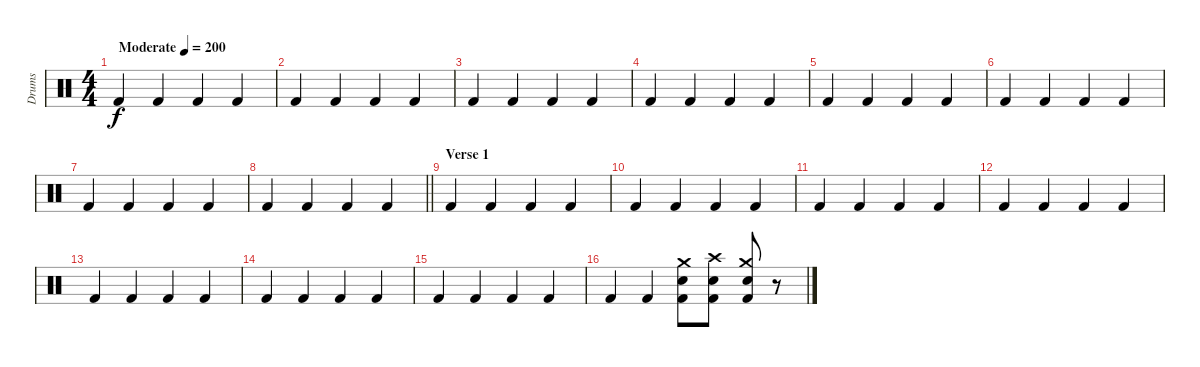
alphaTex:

\track ("Drums" "Drums") {instrument percussion}
\staff {score}
\articulation defaults
\ts (4 4)
\tempo (200 "Moderate")
\clef neutral
\ks c "Kick (hit) 2".4{dy f} "Kick (hit) 2".4 "Kick (hit) 2".4 "Kick (hit) 2".4
|
"Kick (hit) 2".4 "Kick (hit) 2".4 "Kick (hit) 2".4 "Kick (hit) 2".4 |
"Kick (hit) 2".4 "Kick (hit) 2".4 "Kick (hit) 2".4 "Kick (hit) 2".4 |
"Kick (hit) 2".4 "Kick (hit) 2".4 "Kick (hit) 2".4 "Kick (hit) 2".4 |
"Kick (hit) 2".4 "Kick (hit) 2".4 "Kick (hit) 2".4 "Kick (hit) 2".4 |
"Kick (hit) 2".4 "Kick (hit) 2".4 "Kick (hit) 2".4 "Kick (hit) 2".4 |
"Kick (hit) 2".4 "Kick (hit) 2".4 "Kick (hit) 2".4 "Kick (hit) 2".4 |
\barLineRight lightlight "Kick (hit) 2".4 "Kick (hit) 2".4 "Kick (hit) 2".4 "Kick (hit) 2".4
|
\section ("" "Verse 1")
"Kick (hit) 2".4 "Kick (hit) 2".4 "Kick (hit) 2".4 "Kick (hit) 2".4 |
"Kick (hit) 2".4 "Kick (hit) 2".4 "Kick (hit) 2".4 "Kick (hit) 2".4 |
"Kick (hit) 2".4 "Kick (hit) 2".4 "Kick (hit) 2".4 "Kick (hit) 2".4 |
"Kick (hit) 2".4 "Kick (hit) 2".4 "Kick (hit) 2".4 "Kick (hit) 2".4 |
"Kick (hit) 2".4 "Kick (hit) 2".4 "Kick (hit) 2".4 "Kick (hit) 2".4 |
"Kick (hit) 2".4 "Kick (hit) 2".4 "Kick (hit) 2".4 "Kick (hit) 2".4 |
"Kick (hit) 2".4 "Kick (hit) 2".4 "Kick (hit) 2".4 "Kick (hit) 2".4 |
"Kick (hit) 2".4 "Kick (hit) 2".4 ("Crash medium (hit)" "Snare (hit) 2" "Kick (hit) 2").8 ("Crash high (hit)" "Snare (hit) 2" "Kick (hit) 2").8 ("Crash medium (hit)" "Snare (hit) 2" "Kick (hit) 2").8 r.8
